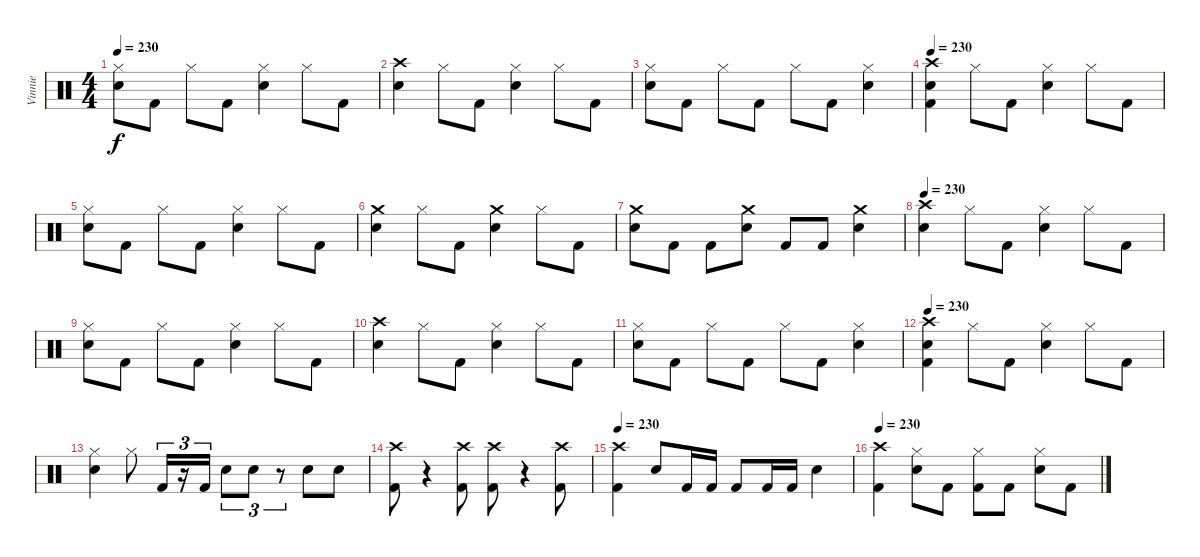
\track ("Vinnie" "Vinnie") {instrument percussion}
\staff {score}
\articulation defaults
\ts (4 4)
\tempo 230
\clef neutral
\ks c
("Hi-Hat (closed)" "Electric Snare (hit)").8{dy f} "Kick (hit) 2".8 "Hi-Hat (closed)".8 "Kick (hit) 2".8 ("Hi-Hat (closed)" "Electric Snare (hit)").4 "Hi-Hat (closed)".8 "Kick (hit) 2".8 |
("Crash high (hit)" "Electric Snare (hit)").4 "Hi-Hat (closed)".8 "Kick (hit) 2".8 ("Hi-Hat (closed)" "Electric Snare (hit)").4 "Hi-Hat (closed)".8 "Kick (hit) 2".8 |
("Hi-Hat (closed)" "Electric Snare (hit)").8 "Kick (hit) 2".8 "Hi-Hat (closed)".8 "Kick (hit) 2".8 "Hi-Hat (closed)".8 "Kick (hit) 2".8 ("Hi-Hat (closed)" "Electric Snare (hit)").4 |
\tempo 230
("Crash high (hit)" "Electric Snare (hit)" "Kick (hit) 2").4 "Hi-Hat (closed)".8 "Kick (hit) 2".8 ("Hi-Hat (closed)" "Electric Snare (hit)").4 "Hi-Hat (closed)".8 "Kick (hit) 2".8 |
("Hi-Hat (closed)" "Electric Snare (hit)").8 "Kick (hit) 2".8 "Hi-Hat (closed)".8 "Kick (hit) 2".8 ("Hi-Hat (closed)" "Electric Snare (hit)").4 "Hi-Hat (closed)".8 "Kick (hit) 2".8 |
("Crash medium (hit)" "Electric Snare (hit)").4 "Hi-Hat (closed)".8 "Kick (hit) 2".8 ("Crash medium (hit)" "Electric Snare (hit)").4 "Hi-Hat (closed)".8 "Kick (hit) 2".8 |
("Crash medium (hit)" "Electric Snare (hit)").8 "Kick (hit) 2".8 "Kick (hit) 2".8 ("Crash medium (hit)" "Electric Snare (hit)").8 "Kick (hit) 2".8 "Kick (hit) 2".8 ("Crash medium (hit)" "Electric Snare (hit)").4 |
\tempo 230
("Crash high (hit)" "Electric Snare (hit)").4 "Hi-Hat (closed)".8 "Kick (hit) 2".8 ("Hi-Hat (closed)" "Electric Snare (hit)").4 "Hi-Hat (closed)".8 "Kick (hit) 2".8 |
("Hi-Hat (closed)" "Electric Snare (hit)").8 "Kick (hit) 2".8 "Hi-Hat (closed)".8 "Kick (hit) 2".8 ("Hi-Hat (closed)" "Electric Snare (hit)").4 "Hi-Hat (closed)".8 "Kick (hit) 2".8 |
("Crash high (hit)" "Electric Snare (hit)").4 "Hi-Hat (closed)".8 "Kick (hit) 2".8 ("Hi-Hat (closed)" "Electric Snare (hit)").4 "Hi-Hat (closed)".8 "Kick (hit) 2".8 |
("Hi-Hat (closed)" "Electric Snare (hit)").8 "Kick (hit) 2".8 "Hi-Hat (closed)".8 "Kick (hit) 2".8 "Hi-Hat (closed)".8 "Kick (hit) 2".8 ("Hi-Hat (closed)" "Electric Snare (hit)").4 |
\tempo 230
("Crash high (hit)" "Electric Snare (hit)" "Kick (hit) 2").4 "Hi-Hat (closed)".8 "Kick (hit) 2".8 ("Hi-Hat (closed)" "Electric Snare (hit)").4 "Hi-Hat (closed)".8 "Kick (hit) 2".8 |
("Hi-Hat (closed)" "Electric Snare (hit)").4 "Hi-Hat (closed)".8 "Kick (hit) 2".16{tu (3 2)} r.16{tu (3 2)} "Kick (hit) 2".16{tu (3 2)} "Electric Snare (hit)".8{tu (3 2)} "Electric Snare (hit)".8{tu (3 2)} r.8{tu (3 2)} "Electric Snare (hit)".8 "Electric Snare (hit)".8 |
("Crash high (hit)" "Kick (hit) 2").8 r.4 ("Crash high (hit)" "Kick (hit) 2").8 ("Crash high (hit)" "Kick (hit) 2").8 r.4 ("Crash high (hit)" "Kick (hit) 2").8 |
\tempo 230
("Crash high (hit)" "Kick (hit) 2").4 "Electric Snare (hit)".8 "Kick (hit) 2".16 "Kick (hit) 2".16 "Kick (hit) 2".8 "Kick (hit) 2".16 "Kick (hit) 2".16 "Electric Snare (hit)".4 |
\tempo 230
("Crash high (hit)" "Kick (hit) 2").4 ("Hi-Hat (closed)" "Electric Snare (hit)").8 "Kick (hit) 2".8 ("Hi-Hat (closed)" "Kick (hit) 2").8 "Kick (hit) 2".8 ("Hi-Hat (closed)" "Electric Snare (hit)").8 "Kick (hit) 2".8
